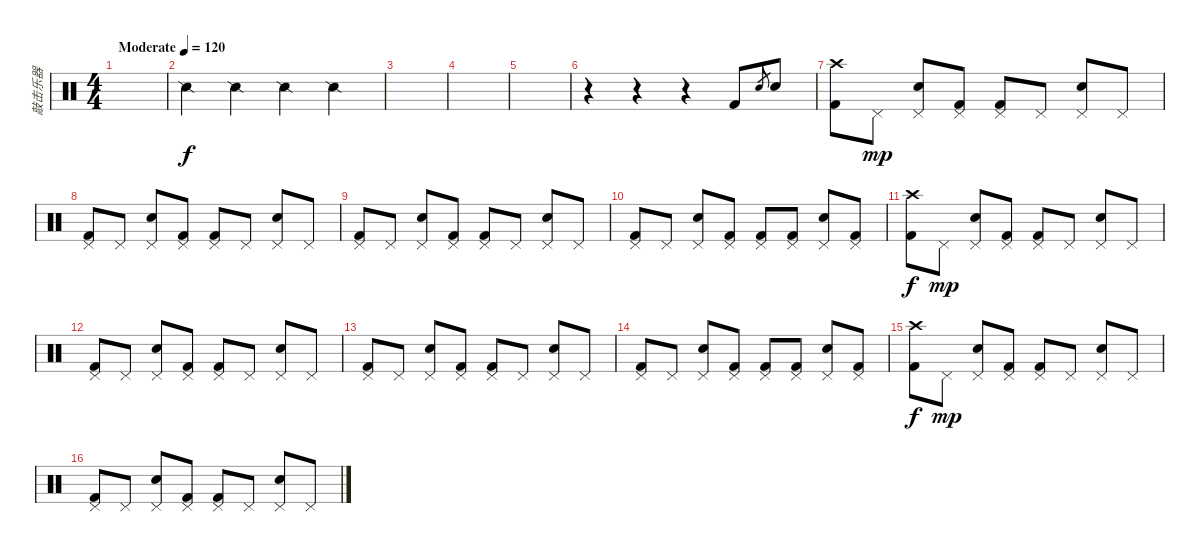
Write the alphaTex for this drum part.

\track ("敲击乐器" "敲击乐器") {instrument percussion}
\staff {score}
\articulation defaults
\ts (4 4)
\tempo (120 "Moderate")
\clef neutral
\ks c
|
"Snare (side stick) 2".4 "Snare (side stick) 2".4 "Snare (side stick) 2".4 "Snare (side stick) 2".4 |
|
|
|
r.4 r.4 r.4 "Kick (hit) 2".8 "Electric Snare (hit)".8{gr} "Electric Snare (hit)".8 |
("Crash high (hit)" "Kick (hit) 2").8 "Pedal Hi-Hat (hit)".8{dy mp} ("Pedal Hi-Hat (hit)" "Electric Snare (hit)").8 ("Pedal Hi-Hat (hit)" "Kick (hit) 2").8 ("Pedal Hi-Hat (hit)" "Kick (hit) 2").8 "Pedal Hi-Hat (hit)".8 ("Pedal Hi-Hat (hit)" "Electric Snare (hit)").8 "Pedal Hi-Hat (hit)".8 |
("Pedal Hi-Hat (hit)" "Kick (hit) 2").8 "Pedal Hi-Hat (hit)".8 ("Pedal Hi-Hat (hit)" "Electric Snare (hit)").8 ("Pedal Hi-Hat (hit)" "Kick (hit) 2").8 ("Pedal Hi-Hat (hit)" "Kick (hit) 2").8 "Pedal Hi-Hat (hit)".8 ("Pedal Hi-Hat (hit)" "Electric Snare (hit)").8 "Pedal Hi-Hat (hit)".8 |
("Pedal Hi-Hat (hit)" "Kick (hit) 2").8 "Pedal Hi-Hat (hit)".8 ("Pedal Hi-Hat (hit)" "Electric Snare (hit)").8 ("Pedal Hi-Hat (hit)" "Kick (hit) 2").8 ("Pedal Hi-Hat (hit)" "Kick (hit) 2").8 "Pedal Hi-Hat (hit)".8 ("Pedal Hi-Hat (hit)" "Electric Snare (hit)").8 "Pedal Hi-Hat (hit)".8 |
("Pedal Hi-Hat (hit)" "Kick (hit) 2").8 "Pedal Hi-Hat (hit)".8 ("Pedal Hi-Hat (hit)" "Electric Snare (hit)").8 ("Pedal Hi-Hat (hit)" "Kick (hit) 2").8 ("Pedal Hi-Hat (hit)" "Kick (hit) 2").8 ("Pedal Hi-Hat (hit)" "Kick (hit) 2").8 ("Pedal Hi-Hat (hit)" "Electric Snare (hit)").8 ("Pedal Hi-Hat (hit)" "Kick (hit) 2").8 |
("Crash high (hit)" "Kick (hit) 2").8{dy f} "Pedal Hi-Hat (hit)".8{dy mp} ("Pedal Hi-Hat (hit)" "Electric Snare (hit)").8 ("Pedal Hi-Hat (hit)" "Kick (hit) 2").8 ("Pedal Hi-Hat (hit)" "Kick (hit) 2").8 "Pedal Hi-Hat (hit)".8 ("Pedal Hi-Hat (hit)" "Electric Snare (hit)").8 "Pedal Hi-Hat (hit)".8 |
("Pedal Hi-Hat (hit)" "Kick (hit) 2").8 "Pedal Hi-Hat (hit)".8 ("Pedal Hi-Hat (hit)" "Electric Snare (hit)").8 ("Pedal Hi-Hat (hit)" "Kick (hit) 2").8 ("Pedal Hi-Hat (hit)" "Kick (hit) 2").8 "Pedal Hi-Hat (hit)".8 ("Pedal Hi-Hat (hit)" "Electric Snare (hit)").8 "Pedal Hi-Hat (hit)".8 |
("Pedal Hi-Hat (hit)" "Kick (hit) 2").8 "Pedal Hi-Hat (hit)".8 ("Pedal Hi-Hat (hit)" "Electric Snare (hit)").8 ("Pedal Hi-Hat (hit)" "Kick (hit) 2").8 ("Pedal Hi-Hat (hit)" "Kick (hit) 2").8 "Pedal Hi-Hat (hit)".8 ("Pedal Hi-Hat (hit)" "Electric Snare (hit)").8 "Pedal Hi-Hat (hit)".8 |
("Pedal Hi-Hat (hit)" "Kick (hit) 2").8 "Pedal Hi-Hat (hit)".8 ("Pedal Hi-Hat (hit)" "Electric Snare (hit)").8 ("Pedal Hi-Hat (hit)" "Kick (hit) 2").8 ("Pedal Hi-Hat (hit)" "Kick (hit) 2").8 ("Pedal Hi-Hat (hit)" "Kick (hit) 2").8 ("Pedal Hi-Hat (hit)" "Electric Snare (hit)").8 ("Pedal Hi-Hat (hit)" "Kick (hit) 2").8 |
("Crash high (hit)" "Kick (hit) 2").8{dy f} "Pedal Hi-Hat (hit)".8{dy mp} ("Pedal Hi-Hat (hit)" "Electric Snare (hit)").8 ("Pedal Hi-Hat (hit)" "Kick (hit) 2").8 ("Pedal Hi-Hat (hit)" "Kick (hit) 2").8 "Pedal Hi-Hat (hit)".8 ("Pedal Hi-Hat (hit)" "Electric Snare (hit)").8 "Pedal Hi-Hat (hit)".8 |
("Pedal Hi-Hat (hit)" "Kick (hit) 2").8 "Pedal Hi-Hat (hit)".8 ("Pedal Hi-Hat (hit)" "Electric Snare (hit)").8 ("Pedal Hi-Hat (hit)" "Kick (hit) 2").8 ("Pedal Hi-Hat (hit)" "Kick (hit) 2").8 "Pedal Hi-Hat (hit)".8 ("Pedal Hi-Hat (hit)" "Electric Snare (hit)").8 "Pedal Hi-Hat (hit)".8
